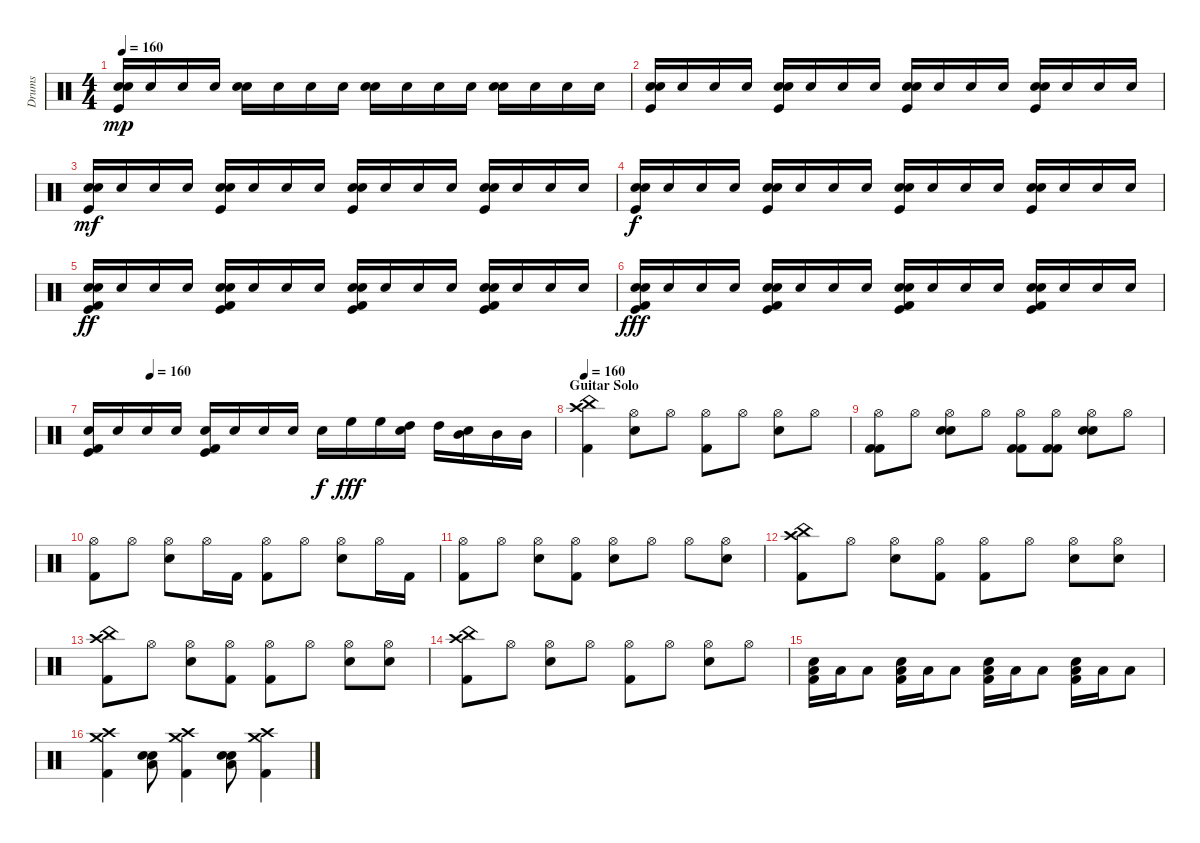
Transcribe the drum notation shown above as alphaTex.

\track ("Drums" "Drums") {instrument percussion}
\staff {score}
\articulation defaults
\ts (4 4)
\tempo 160
\clef neutral
\ks c
("Snare (hit) 2" "Electric Snare (hit)" "Kick (hit)").16{dy mp} "Electric Snare (hit)".16 "Electric Snare (hit)".16 "Electric Snare (hit)".16 ("Snare (hit) 2" "Electric Snare (hit)").16 "Electric Snare (hit)".16 "Electric Snare (hit)".16 "Electric Snare (hit)".16 ("Snare (hit) 2" "Electric Snare (hit)").16 "Electric Snare (hit)".16 "Electric Snare (hit)".16 "Electric Snare (hit)".16 ("Snare (hit) 2" "Electric Snare (hit)").16 "Electric Snare (hit)".16 "Electric Snare (hit)".16 "Electric Snare (hit)".16 |
("Snare (hit) 2" "Electric Snare (hit)" "Kick (hit)").16 "Electric Snare (hit)".16 "Electric Snare (hit)".16 "Electric Snare (hit)".16 ("Snare (hit) 2" "Electric Snare (hit)" "Kick (hit)").16 "Electric Snare (hit)".16 "Electric Snare (hit)".16 "Electric Snare (hit)".16 ("Snare (hit) 2" "Electric Snare (hit)" "Kick (hit)").16 "Electric Snare (hit)".16 "Electric Snare (hit)".16 "Electric Snare (hit)".16 ("Snare (hit) 2" "Electric Snare (hit)" "Kick (hit)").16 "Electric Snare (hit)".16 "Electric Snare (hit)".16 "Electric Snare (hit)".16 |
("Snare (hit) 2" "Electric Snare (hit)" "Kick (hit)").16{dy mf} "Electric Snare (hit)".16 "Electric Snare (hit)".16 "Electric Snare (hit)".16 ("Snare (hit) 2" "Electric Snare (hit)" "Kick (hit)").16 "Electric Snare (hit)".16 "Electric Snare (hit)".16 "Electric Snare (hit)".16 ("Snare (hit) 2" "Electric Snare (hit)" "Kick (hit)").16 "Electric Snare (hit)".16 "Electric Snare (hit)".16 "Electric Snare (hit)".16 ("Snare (hit) 2" "Electric Snare (hit)" "Kick (hit)").16 "Electric Snare (hit)".16 "Electric Snare (hit)".16 "Electric Snare (hit)".16 |
("Snare (hit) 2" "Electric Snare (hit)" "Kick (hit)").16{dy f} "Electric Snare (hit)".16 "Electric Snare (hit)".16 "Electric Snare (hit)".16 ("Snare (hit) 2" "Electric Snare (hit)" "Kick (hit)").16 "Electric Snare (hit)".16 "Electric Snare (hit)".16 "Electric Snare (hit)".16 ("Snare (hit) 2" "Electric Snare (hit)" "Kick (hit)").16 "Electric Snare (hit)".16 "Electric Snare (hit)".16 "Electric Snare (hit)".16 ("Snare (hit) 2" "Electric Snare (hit)" "Kick (hit)").16 "Electric Snare (hit)".16 "Electric Snare (hit)".16 "Electric Snare (hit)".16 |
("Snare (hit) 2" "Electric Snare (hit)" "Kick (hit) 2" "Kick (hit)").16{dy ff} "Electric Snare (hit)".16 "Electric Snare (hit)".16 "Electric Snare (hit)".16 ("Snare (hit) 2" "Electric Snare (hit)" "Kick (hit) 2" "Kick (hit)").16 "Electric Snare (hit)".16 "Electric Snare (hit)".16 "Electric Snare (hit)".16 ("Snare (hit) 2" "Electric Snare (hit)" "Kick (hit) 2" "Kick (hit)").16 "Electric Snare (hit)".16 "Electric Snare (hit)".16 "Electric Snare (hit)".16 ("Snare (hit) 2" "Electric Snare (hit)" "Kick (hit) 2" "Kick (hit)").16 "Electric Snare (hit)".16 "Electric Snare (hit)".16 "Electric Snare (hit)".16 |
("Snare (hit) 2" "Electric Snare (hit)" "Kick (hit) 2" "Kick (hit)").16{dy fff} "Electric Snare (hit)".16 "Electric Snare (hit)".16 "Electric Snare (hit)".16 ("Snare (hit) 2" "Electric Snare (hit)" "Kick (hit) 2" "Kick (hit)").16 "Electric Snare (hit)".16 "Electric Snare (hit)".16 "Electric Snare (hit)".16 ("Snare (hit) 2" "Electric Snare (hit)" "Kick (hit) 2" "Kick (hit)").16 "Electric Snare (hit)".16 "Electric Snare (hit)".16 "Electric Snare (hit)".16 ("Snare (hit) 2" "Electric Snare (hit)" "Kick (hit) 2" "Kick (hit)").16 "Electric Snare (hit)".16 "Electric Snare (hit)".16 "Electric Snare (hit)".16 |
\tempo (160 0.125)
("Electric Snare (hit)" "Kick (hit) 2" "Kick (hit)").16 "Electric Snare (hit)".16 "Electric Snare (hit)".16 "Electric Snare (hit)".16 ("Electric Snare (hit)" "Kick (hit) 2" "Kick (hit)").16 "Electric Snare (hit)".16 "Electric Snare (hit)".16 "Electric Snare (hit)".16 "Electric Snare (hit)".16{dy f} "High Floor Tom (hit)".16{dy fff} "High Floor Tom (hit)".16 ("High Tom (hit)" "Electric Snare (hit)").16 "High Tom (hit)".16 ("Mid Tom (hit)" "Electric Snare (hit)").16 "Mid Tom (hit)".16 "Mid Tom (hit)".16 |
\section ("" "Guitar Solo")
\tempo 160
("China (hit)" "Crash high (hit)" "Kick (hit) 2").4 ("Hi-Hat (open)" "Electric Snare (hit)").8 "Hi-Hat (open)".8 ("Hi-Hat (open)" "Kick (hit) 2").8 "Hi-Hat (open)".8 ("Hi-Hat (open)" "Electric Snare (hit)").8 "Hi-Hat (open)".8 |
("Hi-Hat (open)" "Kick (hit) 2" "Kick (hit) 2").8 "Hi-Hat (open)".8 ("Hi-Hat (open)" "Snare (hit) 2" "Electric Snare (hit)").8 "Hi-Hat (open)".8 ("Hi-Hat (open)" "Kick (hit) 2" "Kick (hit) 2").8 ("Hi-Hat (open)" "Kick (hit) 2" "Kick (hit) 2").8 ("Hi-Hat (open)" "Snare (hit) 2" "Electric Snare (hit)").8 "Hi-Hat (open)".8 |
("Hi-Hat (open)" "Kick (hit) 2").8 "Hi-Hat (open)".8 ("Hi-Hat (open)" "Snare (hit) 2").8 "Hi-Hat (open)".16 "Kick (hit) 2".16 ("Hi-Hat (open)" "Kick (hit) 2").8 "Hi-Hat (open)".8 ("Hi-Hat (open)" "Snare (hit) 2").8 "Hi-Hat (open)".16 "Kick (hit) 2".16 |
("Hi-Hat (open)" "Kick (hit) 2").8 "Hi-Hat (open)".8 ("Hi-Hat (open)" "Electric Snare (hit)").8 ("Hi-Hat (open)" "Kick (hit) 2").8 ("Hi-Hat (open)" "Electric Snare (hit)").8 "Hi-Hat (open)".8 "Hi-Hat (open)".8 ("Hi-Hat (open)" "Electric Snare (hit)").8 |
("Kick (hit) 2" "China (hit)" "Crash high (hit)").8 "Hi-Hat (open)".8 ("Hi-Hat (open)" "Snare (hit) 2").8 ("Hi-Hat (open)" "Kick (hit) 2").8 ("Hi-Hat (open)" "Kick (hit) 2").8 "Hi-Hat (open)".8 ("Hi-Hat (open)" "Snare (hit) 2").8 ("Hi-Hat (open)" "Snare (hit) 2").8 |
("Kick (hit) 2" "China (hit)" "Crash high (hit)").8 "Hi-Hat (open)".8 ("Hi-Hat (open)" "Snare (hit) 2").8 ("Hi-Hat (open)" "Kick (hit) 2").8 ("Hi-Hat (open)" "Kick (hit) 2").8 "Hi-Hat (open)".8 ("Hi-Hat (open)" "Snare (hit) 2").8 ("Hi-Hat (open)" "Snare (hit) 2").8 |
("China (hit)" "Crash high (hit)" "Kick (hit) 2").8 "Hi-Hat (open)".8 ("Hi-Hat (open)" "Snare (hit) 2").8 "Hi-Hat (open)".8 ("Hi-Hat (open)" "Kick (hit) 2").8 "Hi-Hat (open)".8 ("Hi-Hat (open)" "Snare (hit) 2").8 "Hi-Hat (open)".8 |
("Low Floor Tom (hit)" "Snare (hit) 2" "Kick (hit) 2").16 "Low Floor Tom (hit)".16 "Low Floor Tom (hit)".8 ("Low Floor Tom (hit)" "Snare (hit) 2" "Kick (hit) 2").16 "Low Floor Tom (hit)".16 "Low Floor Tom (hit)".8 ("Low Floor Tom (hit)" "Snare (hit) 2" "Kick (hit) 2").16 "Low Floor Tom (hit)".16 "Low Floor Tom (hit)".8 ("Low Floor Tom (hit)" "Snare (hit) 2" "Kick (hit) 2").16 "Low Floor Tom (hit)".16 "Low Floor Tom (hit)".8 |
("Crash medium (hit)" "Crash high (hit)" "Kick (hit) 2").4 ("Snare (hit) 2" "Electric Snare (hit)" "Low Floor Tom (hit)").8 ("Crash medium (hit)" "Crash high (hit)" "Kick (hit) 2").4 ("Snare (hit) 2" "Electric Snare (hit)" "Low Floor Tom (hit)").8 ("Crash medium (hit)" "Crash high (hit)" "Kick (hit) 2").4
